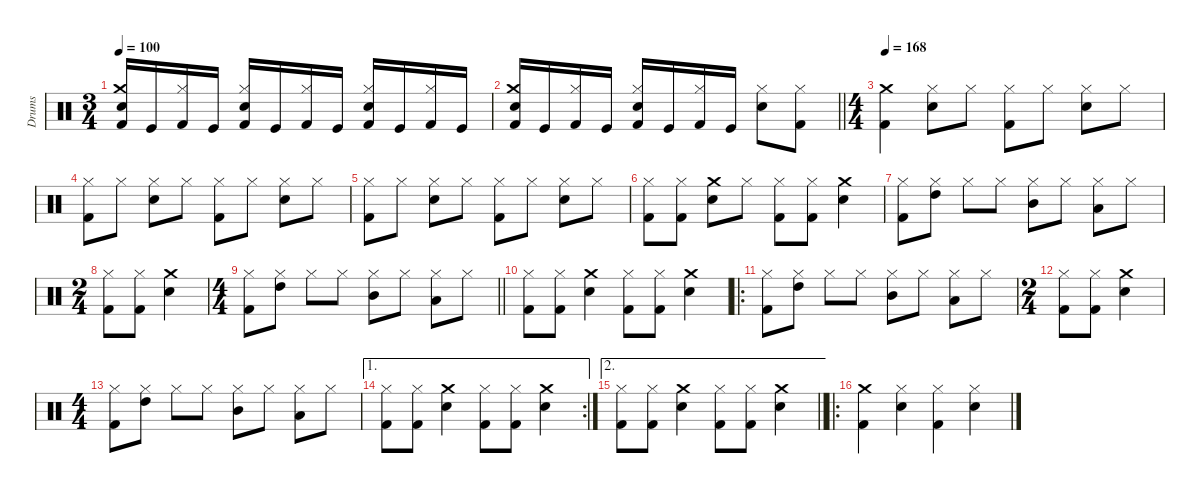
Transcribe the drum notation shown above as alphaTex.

\defaultSystemsLayout 4
\hideDynamics
\bracketExtendMode nobrackets
\firstSystemTrackNameMode fullname
\otherSystemsTrackNameOrientation horizontal
\track ("Drums" "drm.") {instrument percussion}
\staff {score}
\articulation defaults
\ts (3 4)
\tempo 100
\clef neutral
\ks c
("Kick (hit) 2" "Snare (hit) 2" "Crash medium (hit)").16{dy fff beam Up} "Kick (hit)".16{beam Up} ("Kick (hit) 2" "Hi-Hat (closed)").16{beam Up} "Kick (hit)".16{beam Up} ("Kick (hit) 2" "Snare (hit) 2" "Hi-Hat (closed)").16{beam Up} "Kick (hit)".16{beam Up} ("Kick (hit) 2" "Hi-Hat (closed)").16{beam Up} "Kick (hit)".16{beam Up} ("Kick (hit) 2" "Snare (hit) 2" "Hi-Hat (closed)").16{beam Up} "Kick (hit)".16{beam Up} ("Kick (hit) 2" "Hi-Hat (closed)").16{beam Up} "Kick (hit)".16{beam Up} |
\barLineRight lightlight
("Kick (hit) 2" "Snare (hit) 2" "Crash medium (hit)").16{beam Up} "Kick (hit)".16{beam Up} ("Kick (hit) 2" "Hi-Hat (closed)").16{beam Up} "Kick (hit)".16{beam Up} ("Kick (hit) 2" "Snare (hit) 2" "Hi-Hat (closed)").16{beam Up} "Kick (hit)".16{beam Up} ("Kick (hit) 2" "Hi-Hat (closed)").16{beam Up} "Kick (hit)".16{beam Up} ("Snare (hit) 2" "Hi-Hat (closed)").8{beam Down} ("Kick (hit) 2" "Hi-Hat (closed)").8{beam Down} |
\ts (4 4)
\beaming (8 2 2 2 2)
\tempo 168
("Crash medium (hit)" "Kick (hit) 2").4{beam Down} ("Hi-Hat (closed)" "Snare (hit) 2").8{beam Down} "Hi-Hat (closed)".8{beam Down} ("Kick (hit) 2" "Hi-Hat (closed)").8{beam Down} "Hi-Hat (closed)".8{beam Down} ("Snare (hit) 2" "Hi-Hat (closed)").8{beam Down} "Hi-Hat (closed)".8{beam Down} |
("Kick (hit) 2" "Hi-Hat (closed)").8{beam Down} "Hi-Hat (closed)".8{beam Down} ("Snare (hit) 2" "Hi-Hat (closed)").8{beam Down} "Hi-Hat (closed)".8{beam Down} ("Kick (hit) 2" "Hi-Hat (closed)").8{beam Down} "Hi-Hat (closed)".8{beam Down} ("Snare (hit) 2" "Hi-Hat (closed)").8{beam Down} "Hi-Hat (closed)".8{beam Down} |
("Kick (hit) 2" "Hi-Hat (closed)").8{beam Down} "Hi-Hat (closed)".8{beam Down} ("Snare (hit) 2" "Hi-Hat (closed)").8{beam Down} "Hi-Hat (closed)".8{beam Down} ("Kick (hit) 2" "Hi-Hat (closed)").8{beam Down} "Hi-Hat (closed)".8{beam Down} ("Snare (hit) 2" "Hi-Hat (closed)").8{beam Down} "Hi-Hat (closed)".8{beam Down} |
("Kick (hit) 2" "Hi-Hat (closed)").8{beam Down} ("Kick (hit) 2" "Hi-Hat (closed)").8{beam Down} ("Snare (hit) 2" "Crash medium (hit)").8{beam Down} "Hi-Hat (closed)".8{beam Down} ("Hi-Hat (closed)" "Kick (hit) 2").8{beam Down} ("Hi-Hat (closed)" "Kick (hit) 2").8{beam Down} ("Crash medium (hit)" "Snare (hit) 2").4{beam Down} |
("Hi-Hat (closed)" "Kick (hit) 2").8{beam Down} ("High Tom (hit)" "Hi-Hat (closed)").8{beam Down} "Hi-Hat (closed)".8{beam Down} "Hi-Hat (closed)".8{beam Down} ("Mid Tom (hit)" "Hi-Hat (closed)").8{beam Down} "Hi-Hat (closed)".8{beam Down} ("Low Tom (hit)" "Hi-Hat (closed)").8{beam Down} "Hi-Hat (closed)".8{beam Down} |
\ts (2 4)
\beaming (8 2 2)
("Kick (hit) 2" "Hi-Hat (closed)").8{beam Down} ("Kick (hit) 2" "Hi-Hat (closed)").8{beam Down} ("Snare (hit) 2" "Crash medium (hit)").4{beam Down} |
\ts (4 4)
\beaming (8 2 2 2 2)
\barLineRight lightlight
("Hi-Hat (closed)" "Kick (hit) 2").8{beam Down} ("High Tom (hit)" "Hi-Hat (closed)").8{beam Down} "Hi-Hat (closed)".8{beam Down} "Hi-Hat (closed)".8{beam Down} ("Mid Tom (hit)" "Hi-Hat (closed)").8{beam Down} "Hi-Hat (closed)".8{beam Down} ("Hi-Hat (closed)" "Low Tom (hit)").8{beam Down} "Hi-Hat (closed)".8{beam Down} |
("Hi-Hat (closed)" "Kick (hit) 2").8{beam Down} ("Hi-Hat (closed)" "Kick (hit) 2").8{beam Down} ("Snare (hit) 2" "Crash medium (hit)").4{beam Down} ("Kick (hit) 2" "Hi-Hat (closed)").8{beam Down} ("Kick (hit) 2" "Hi-Hat (closed)").8{beam Down} ("Crash medium (hit)" "Snare (hit) 2").4{beam Down} |
\ro
("Hi-Hat (closed)" "Kick (hit) 2").8{beam Down} ("High Tom (hit)" "Hi-Hat (closed)").8{beam Down} "Hi-Hat (closed)".8{beam Down} "Hi-Hat (closed)".8{beam Down} ("Mid Tom (hit)" "Hi-Hat (closed)").8{beam Down} "Hi-Hat (closed)".8{beam Down} ("Low Tom (hit)" "Hi-Hat (closed)").8{beam Down} "Hi-Hat (closed)".8{beam Down} |
\ts (2 4)
\beaming (8 2 2)
("Kick (hit) 2" "Hi-Hat (closed)").8{beam Down} ("Kick (hit) 2" "Hi-Hat (closed)").8{beam Down} ("Snare (hit) 2" "Crash medium (hit)").4{beam Down} |
\ts (4 4)
\beaming (8 2 2 2 2)
("Hi-Hat (closed)" "Kick (hit) 2").8{beam Down} ("High Tom (hit)" "Hi-Hat (closed)").8{beam Down} "Hi-Hat (closed)".8{beam Down} "Hi-Hat (closed)".8{beam Down} ("Mid Tom (hit)" "Hi-Hat (closed)").8{beam Down} "Hi-Hat (closed)".8{beam Down} ("Hi-Hat (closed)" "Low Tom (hit)").8{beam Down} "Hi-Hat (closed)".8{beam Down} |
\ae 1
\rc 2
("Hi-Hat (closed)" "Kick (hit) 2").8{beam Down} ("Hi-Hat (closed)" "Kick (hit) 2").8{beam Down} ("Snare (hit) 2" "Crash medium (hit)").4{beam Down} ("Kick (hit) 2" "Hi-Hat (closed)").8{beam Down} ("Kick (hit) 2" "Hi-Hat (closed)").8{beam Down} ("Crash medium (hit)" "Snare (hit) 2").4{beam Down} |
\ae 2
\barLineRight lightlight
("Hi-Hat (closed)" "Kick (hit) 2").8{beam Down} ("Hi-Hat (closed)" "Kick (hit) 2").8{beam Down} ("Snare (hit) 2" "Crash medium (hit)").4{beam Down} ("Kick (hit) 2" "Hi-Hat (closed)").8{beam Down} ("Kick (hit) 2" "Hi-Hat (closed)").8{beam Down} ("Crash medium (hit)" "Snare (hit) 2").4{beam Down} |
\ro
("Kick (hit) 2" "Crash medium (hit)").4{beam Down} ("Hi-Hat (closed)" "Snare (hit) 2").4{beam Down} ("Hi-Hat (closed)" "Kick (hit) 2").4{beam Down} ("Snare (hit) 2" "Hi-Hat (closed)").4{beam Down}
